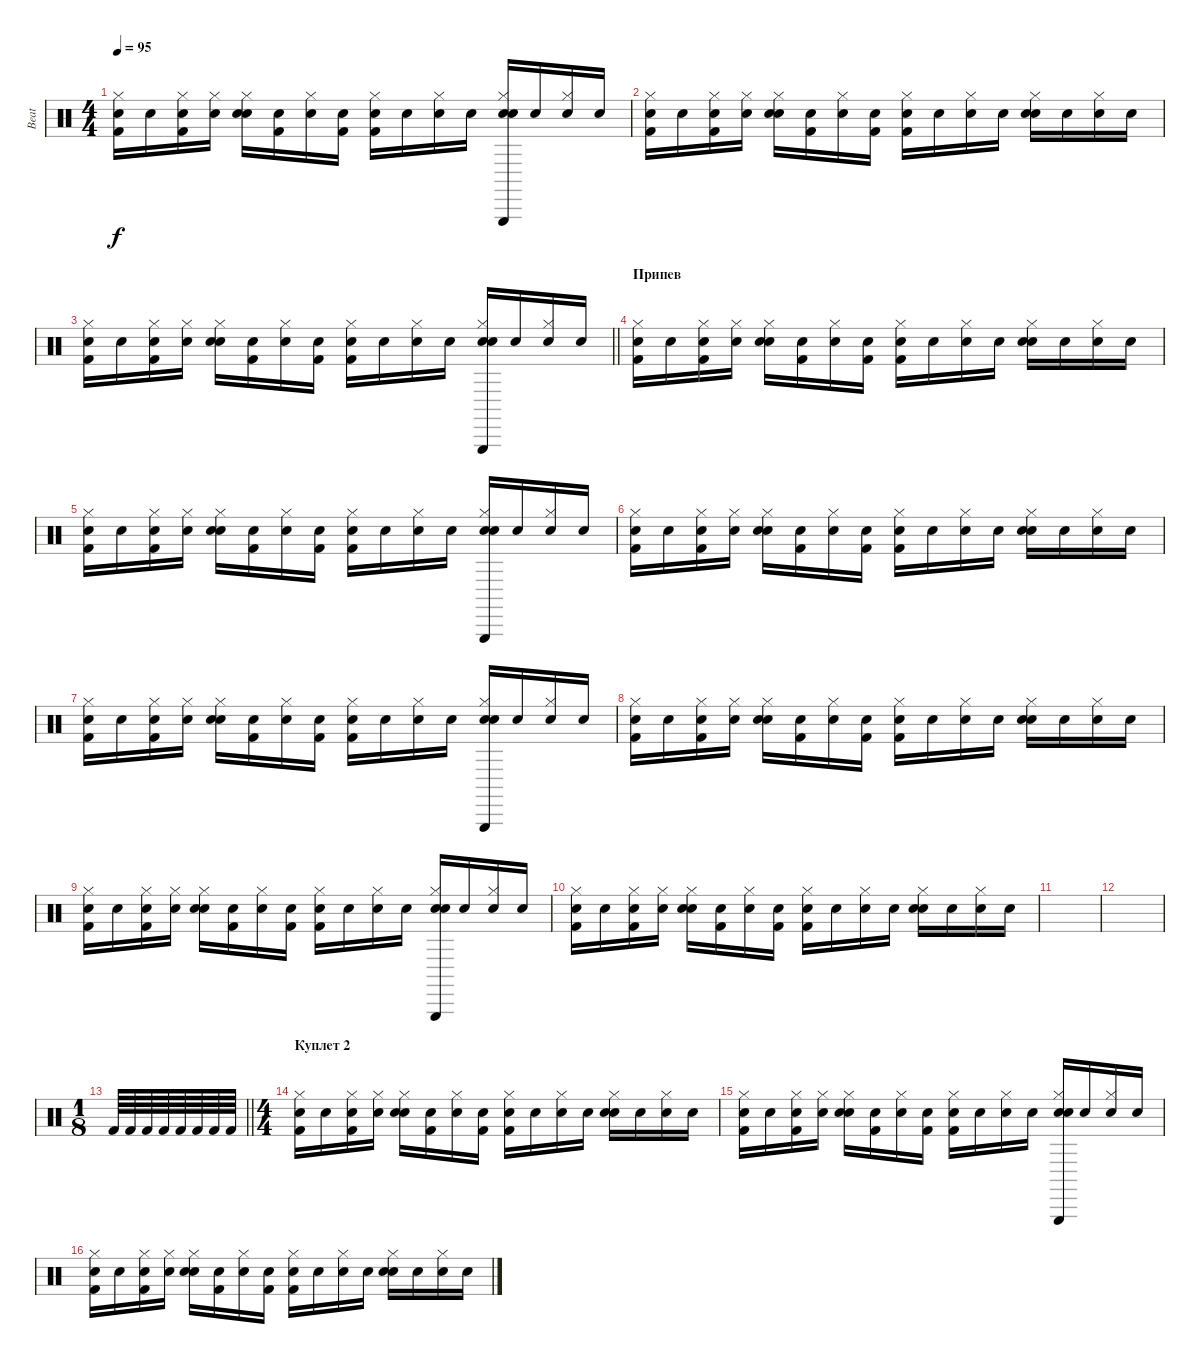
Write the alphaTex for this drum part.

\track ("Beat" "Beat") {instrument percussion}
\staff {score}
\articulation defaults
\ts (4 4)
\tempo 95
\clef neutral
\ks c
("Snare (hit)"{x} "Kick (hit) 2" "Hi-Hat (closed)").16{dy f} "Snare (hit)"{x}.16 ("Snare (hit)"{x} "Kick (hit) 2" "Hi-Hat (closed)").16 ("Snare (hit)"{x} "Hi-Hat (closed)").16 ("Snare (hit)"{x} "Electric Snare (hit)" "Hi-Hat (closed)").16 ("Snare (hit)"{x} "Kick (hit) 2").16 ("Snare (hit)"{x} "Hi-Hat (closed)").16 ("Snare (hit)"{x} "Kick (hit) 2").16 ("Snare (hit)"{x} "Kick (hit) 2" "Hi-Hat (closed)").16 "Snare (hit)"{x}.16 ("Snare (hit)"{x} "Hi-Hat (closed)").16 "Snare (hit)"{x}.16 ("Snare (hit)"{x} "Triangle (hit)" "Electric Snare (hit)" "Hi-Hat (closed)").16 "Snare (hit)"{x}.16 ("Snare (hit)"{x} "Hi-Hat (closed)").16 "Snare (hit)"{x}.16 |
("Snare (hit)"{x} "Kick (hit) 2" "Hi-Hat (closed)").16 "Snare (hit)"{x}.16 ("Snare (hit)"{x} "Kick (hit) 2" "Hi-Hat (closed)").16 ("Snare (hit)"{x} "Hi-Hat (closed)").16 ("Snare (hit)"{x} "Electric Snare (hit)" "Hi-Hat (closed)").16 ("Snare (hit)"{x} "Kick (hit) 2").16 ("Snare (hit)"{x} "Hi-Hat (closed)").16 ("Snare (hit)"{x} "Kick (hit) 2").16 ("Snare (hit)"{x} "Kick (hit) 2" "Hi-Hat (closed)").16 "Snare (hit)"{x}.16 ("Snare (hit)"{x} "Hi-Hat (closed)").16 "Snare (hit)"{x}.16 ("Snare (hit)"{x} "Electric Snare (hit)" "Hi-Hat (closed)").16 "Snare (hit)"{x}.16 ("Snare (hit)"{x} "Hi-Hat (closed)").16 "Snare (hit)"{x}.16 |
\barLineRight lightlight
("Snare (hit)"{x} "Kick (hit) 2" "Hi-Hat (closed)").16 "Snare (hit)"{x}.16 ("Snare (hit)"{x} "Kick (hit) 2" "Hi-Hat (closed)").16 ("Snare (hit)"{x} "Hi-Hat (closed)").16 ("Snare (hit)"{x} "Electric Snare (hit)" "Hi-Hat (closed)").16 ("Snare (hit)"{x} "Kick (hit) 2").16 ("Snare (hit)"{x} "Hi-Hat (closed)").16 ("Snare (hit)"{x} "Kick (hit) 2").16 ("Snare (hit)"{x} "Kick (hit) 2" "Hi-Hat (closed)").16 "Snare (hit)"{x}.16 ("Snare (hit)"{x} "Hi-Hat (closed)").16 "Snare (hit)"{x}.16 ("Snare (hit)"{x} "Triangle (hit)" "Electric Snare (hit)" "Hi-Hat (closed)").16 "Snare (hit)"{x}.16 ("Snare (hit)"{x} "Hi-Hat (closed)").16 "Snare (hit)"{x}.16 |
\section ("" "Припев")
("Snare (hit)"{x} "Kick (hit) 2" "Hi-Hat (closed)").16 "Snare (hit)"{x}.16 ("Snare (hit)"{x} "Kick (hit) 2" "Hi-Hat (closed)").16 ("Snare (hit)"{x} "Hi-Hat (closed)").16 ("Snare (hit)"{x} "Electric Snare (hit)" "Hi-Hat (closed)").16 ("Snare (hit)"{x} "Kick (hit) 2").16 ("Snare (hit)"{x} "Hi-Hat (closed)").16 ("Snare (hit)"{x} "Kick (hit) 2").16 ("Snare (hit)"{x} "Kick (hit) 2" "Hi-Hat (closed)").16 "Snare (hit)"{x}.16 ("Snare (hit)"{x} "Hi-Hat (closed)").16 "Snare (hit)"{x}.16 ("Snare (hit)"{x} "Electric Snare (hit)" "Hi-Hat (closed)").16 "Snare (hit)"{x}.16 ("Snare (hit)"{x} "Hi-Hat (closed)").16 "Snare (hit)"{x}.16 |
("Snare (hit)"{x} "Kick (hit) 2" "Hi-Hat (closed)").16 "Snare (hit)"{x}.16 ("Snare (hit)"{x} "Kick (hit) 2" "Hi-Hat (closed)").16 ("Snare (hit)"{x} "Hi-Hat (closed)").16 ("Snare (hit)"{x} "Electric Snare (hit)" "Hi-Hat (closed)").16 ("Snare (hit)"{x} "Kick (hit) 2").16 ("Snare (hit)"{x} "Hi-Hat (closed)").16 ("Snare (hit)"{x} "Kick (hit) 2").16 ("Snare (hit)"{x} "Kick (hit) 2" "Hi-Hat (closed)").16 "Snare (hit)"{x}.16 ("Snare (hit)"{x} "Hi-Hat (closed)").16 "Snare (hit)"{x}.16 ("Snare (hit)"{x} "Triangle (hit)" "Electric Snare (hit)" "Hi-Hat (closed)").16 "Snare (hit)"{x}.16 ("Snare (hit)"{x} "Hi-Hat (closed)").16 "Snare (hit)"{x}.16 |
("Snare (hit)"{x} "Kick (hit) 2" "Hi-Hat (closed)").16 "Snare (hit)"{x}.16 ("Snare (hit)"{x} "Kick (hit) 2" "Hi-Hat (closed)").16 ("Snare (hit)"{x} "Hi-Hat (closed)").16 ("Snare (hit)"{x} "Electric Snare (hit)" "Hi-Hat (closed)").16 ("Snare (hit)"{x} "Kick (hit) 2").16 ("Snare (hit)"{x} "Hi-Hat (closed)").16 ("Snare (hit)"{x} "Kick (hit) 2").16 ("Snare (hit)"{x} "Kick (hit) 2" "Hi-Hat (closed)").16 "Snare (hit)"{x}.16 ("Snare (hit)"{x} "Hi-Hat (closed)").16 "Snare (hit)"{x}.16 ("Snare (hit)"{x} "Electric Snare (hit)" "Hi-Hat (closed)").16 "Snare (hit)"{x}.16 ("Snare (hit)"{x} "Hi-Hat (closed)").16 "Snare (hit)"{x}.16 |
("Snare (hit)"{x} "Kick (hit) 2" "Hi-Hat (closed)").16 "Snare (hit)"{x}.16 ("Snare (hit)"{x} "Kick (hit) 2" "Hi-Hat (closed)").16 ("Snare (hit)"{x} "Hi-Hat (closed)").16 ("Snare (hit)"{x} "Electric Snare (hit)" "Hi-Hat (closed)").16 ("Snare (hit)"{x} "Kick (hit) 2").16 ("Snare (hit)"{x} "Hi-Hat (closed)").16 ("Snare (hit)"{x} "Kick (hit) 2").16 ("Snare (hit)"{x} "Kick (hit) 2" "Hi-Hat (closed)").16 "Snare (hit)"{x}.16 ("Snare (hit)"{x} "Hi-Hat (closed)").16 "Snare (hit)"{x}.16 ("Snare (hit)"{x} "Triangle (hit)" "Electric Snare (hit)" "Hi-Hat (closed)").16 "Snare (hit)"{x}.16 ("Snare (hit)"{x} "Hi-Hat (closed)").16 "Snare (hit)"{x}.16 |
("Snare (hit)"{x} "Kick (hit) 2" "Hi-Hat (closed)").16 "Snare (hit)"{x}.16 ("Snare (hit)"{x} "Kick (hit) 2" "Hi-Hat (closed)").16 ("Snare (hit)"{x} "Hi-Hat (closed)").16 ("Snare (hit)"{x} "Electric Snare (hit)" "Hi-Hat (closed)").16 ("Snare (hit)"{x} "Kick (hit) 2").16 ("Snare (hit)"{x} "Hi-Hat (closed)").16 ("Snare (hit)"{x} "Kick (hit) 2").16 ("Snare (hit)"{x} "Kick (hit) 2" "Hi-Hat (closed)").16 "Snare (hit)"{x}.16 ("Snare (hit)"{x} "Hi-Hat (closed)").16 "Snare (hit)"{x}.16 ("Snare (hit)"{x} "Electric Snare (hit)" "Hi-Hat (closed)").16 "Snare (hit)"{x}.16 ("Snare (hit)"{x} "Hi-Hat (closed)").16 "Snare (hit)"{x}.16 |
("Snare (hit)"{x} "Kick (hit) 2" "Hi-Hat (closed)").16 "Snare (hit)"{x}.16 ("Snare (hit)"{x} "Kick (hit) 2" "Hi-Hat (closed)").16 ("Snare (hit)"{x} "Hi-Hat (closed)").16 ("Snare (hit)"{x} "Electric Snare (hit)" "Hi-Hat (closed)").16 ("Snare (hit)"{x} "Kick (hit) 2").16 ("Snare (hit)"{x} "Hi-Hat (closed)").16 ("Snare (hit)"{x} "Kick (hit) 2").16 ("Snare (hit)"{x} "Kick (hit) 2" "Hi-Hat (closed)").16 "Snare (hit)"{x}.16 ("Snare (hit)"{x} "Hi-Hat (closed)").16 "Snare (hit)"{x}.16 ("Snare (hit)"{x} "Triangle (hit)" "Electric Snare (hit)" "Hi-Hat (closed)").16 "Snare (hit)"{x}.16 ("Snare (hit)"{x} "Hi-Hat (closed)").16 "Snare (hit)"{x}.16 |
("Snare (hit)"{x} "Kick (hit) 2" "Hi-Hat (closed)").16 "Snare (hit)"{x}.16 ("Snare (hit)"{x} "Kick (hit) 2" "Hi-Hat (closed)").16 ("Snare (hit)"{x} "Hi-Hat (closed)").16 ("Snare (hit)"{x} "Electric Snare (hit)" "Hi-Hat (closed)").16 ("Snare (hit)"{x} "Kick (hit) 2").16 ("Snare (hit)"{x} "Hi-Hat (closed)").16 ("Snare (hit)"{x} "Kick (hit) 2").16 ("Snare (hit)"{x} "Kick (hit) 2" "Hi-Hat (closed)").16 "Snare (hit)"{x}.16 ("Snare (hit)"{x} "Hi-Hat (closed)").16 "Snare (hit)"{x}.16 ("Snare (hit)"{x} "Electric Snare (hit)" "Hi-Hat (closed)").16 "Snare (hit)"{x}.16 ("Snare (hit)"{x} "Hi-Hat (closed)").16 "Snare (hit)"{x}.16 |
|
|
\ts (1 8)
\barLineRight lightlight "Kick (hit) 2".64 "Kick (hit) 2".64 "Kick (hit) 2".64 "Kick (hit) 2".64 "Kick (hit) 2".64 "Kick (hit) 2".64 "Kick (hit) 2".64 "Kick (hit) 2".64
|
\ts (4 4)
\section ("" "Куплет 2")
("Snare (hit)"{x} "Kick (hit) 2" "Hi-Hat (closed)").16 "Snare (hit)"{x}.16 ("Snare (hit)"{x} "Kick (hit) 2" "Hi-Hat (closed)").16 ("Snare (hit)"{x} "Hi-Hat (closed)").16 ("Snare (hit)"{x} "Electric Snare (hit)" "Hi-Hat (closed)").16 ("Snare (hit)"{x} "Kick (hit) 2").16 ("Snare (hit)"{x} "Hi-Hat (closed)").16 ("Snare (hit)"{x} "Kick (hit) 2").16 ("Snare (hit)"{x} "Kick (hit) 2" "Hi-Hat (closed)").16 "Snare (hit)"{x}.16 ("Snare (hit)"{x} "Hi-Hat (closed)").16 "Snare (hit)"{x}.16 ("Snare (hit)"{x} "Electric Snare (hit)" "Hi-Hat (closed)").16 "Snare (hit)"{x}.16 ("Snare (hit)"{x} "Hi-Hat (closed)").16 "Snare (hit)"{x}.16 |
("Snare (hit)"{x} "Kick (hit) 2" "Hi-Hat (closed)").16 "Snare (hit)"{x}.16 ("Snare (hit)"{x} "Kick (hit) 2" "Hi-Hat (closed)").16 ("Snare (hit)"{x} "Hi-Hat (closed)").16 ("Snare (hit)"{x} "Electric Snare (hit)" "Hi-Hat (closed)").16 ("Snare (hit)"{x} "Kick (hit) 2").16 ("Snare (hit)"{x} "Hi-Hat (closed)").16 ("Snare (hit)"{x} "Kick (hit) 2").16 ("Snare (hit)"{x} "Kick (hit) 2" "Hi-Hat (closed)").16 "Snare (hit)"{x}.16 ("Snare (hit)"{x} "Hi-Hat (closed)").16 "Snare (hit)"{x}.16 ("Snare (hit)"{x} "Triangle (hit)" "Electric Snare (hit)" "Hi-Hat (closed)").16 "Snare (hit)"{x}.16 ("Snare (hit)"{x} "Hi-Hat (closed)").16 "Snare (hit)"{x}.16 |
("Snare (hit)"{x} "Kick (hit) 2" "Hi-Hat (closed)").16 "Snare (hit)"{x}.16 ("Snare (hit)"{x} "Kick (hit) 2" "Hi-Hat (closed)").16 ("Snare (hit)"{x} "Hi-Hat (closed)").16 ("Snare (hit)"{x} "Electric Snare (hit)" "Hi-Hat (closed)").16 ("Snare (hit)"{x} "Kick (hit) 2").16 ("Snare (hit)"{x} "Hi-Hat (closed)").16 ("Snare (hit)"{x} "Kick (hit) 2").16 ("Snare (hit)"{x} "Kick (hit) 2" "Hi-Hat (closed)").16 "Snare (hit)"{x}.16 ("Snare (hit)"{x} "Hi-Hat (closed)").16 "Snare (hit)"{x}.16 ("Snare (hit)"{x} "Electric Snare (hit)" "Hi-Hat (closed)").16 "Snare (hit)"{x}.16 ("Snare (hit)"{x} "Hi-Hat (closed)").16 "Snare (hit)"{x}.16
